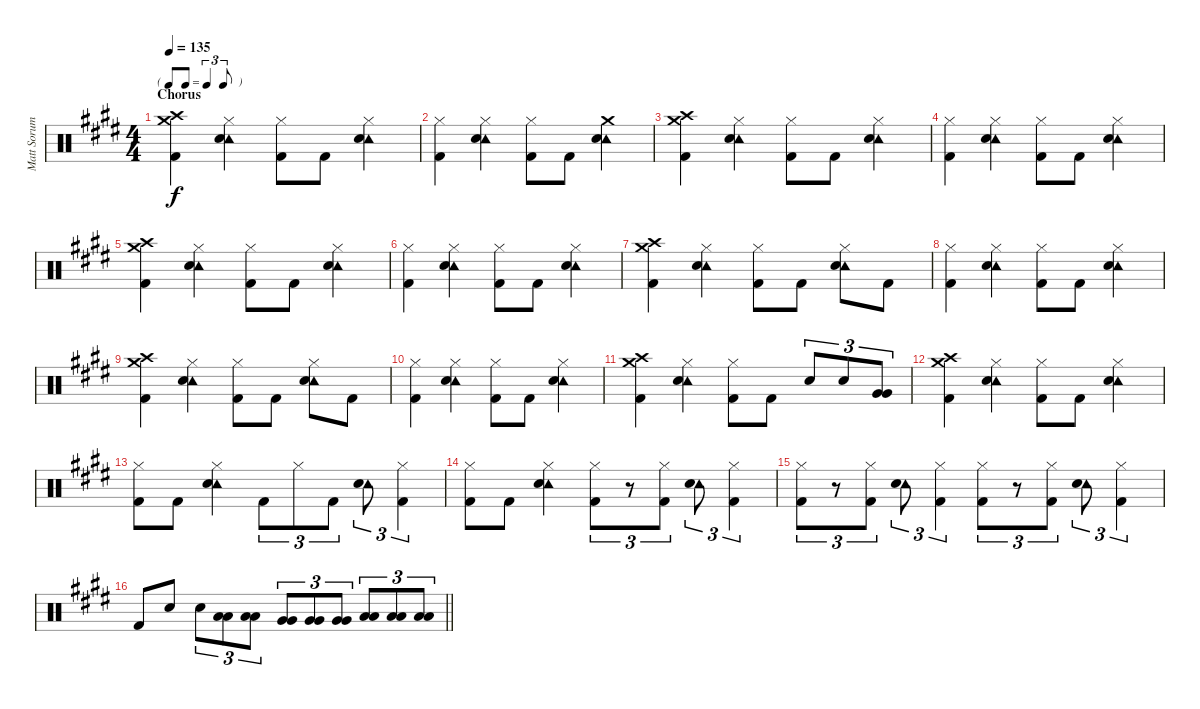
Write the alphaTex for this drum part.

\track ("Matt Sorum - Drums" "Matt Sorum") {instrument percussion}
\staff {score}
\articulation defaults
\ts (4 4)
\tf triplet8th
\section ("" "Chorus")
\tempo 135
\clef neutral
\ks e
("Crash medium (hit)" "Crash high (hit)" "Kick (hit) 2").4{dy f} ("Hi-Hat (closed)" "Tambourine (hit)" "Snare (hit) 2").4 ("Hi-Hat (closed)" "Kick (hit) 2").8 "Kick (hit) 2".8 ("Hi-Hat (closed)" "Tambourine (hit)" "Snare (hit) 2").4 |
("Hi-Hat (closed)" "Kick (hit) 2").4 ("Hi-Hat (closed)" "Tambourine (hit)" "Snare (hit) 2").4 ("Hi-Hat (closed)" "Kick (hit) 2").8 "Kick (hit) 2".8 ("Crash medium (hit)" "Tambourine (hit)" "Snare (hit) 2").4 |
("Crash medium (hit)" "Crash high (hit)" "Kick (hit) 2").4 ("Hi-Hat (closed)" "Tambourine (hit)" "Snare (hit) 2").4 ("Hi-Hat (closed)" "Kick (hit) 2").8 "Kick (hit) 2".8 ("Hi-Hat (closed)" "Tambourine (hit)" "Snare (hit) 2").4 |
("Hi-Hat (closed)" "Kick (hit) 2").4 ("Hi-Hat (closed)" "Tambourine (hit)" "Snare (hit) 2").4 ("Hi-Hat (closed)" "Kick (hit) 2").8 "Kick (hit) 2".8 ("Hi-Hat (closed)" "Tambourine (hit)" "Snare (hit) 2").4 |
("Crash medium (hit)" "Crash high (hit)" "Kick (hit) 2").4 ("Hi-Hat (closed)" "Tambourine (hit)" "Snare (hit) 2").4 ("Hi-Hat (closed)" "Kick (hit) 2").8 "Kick (hit) 2".8 ("Hi-Hat (closed)" "Tambourine (hit)" "Snare (hit) 2").4 |
("Hi-Hat (closed)" "Kick (hit) 2").4 ("Hi-Hat (closed)" "Tambourine (hit)" "Snare (hit) 2").4 ("Hi-Hat (closed)" "Kick (hit) 2").8 "Kick (hit) 2".8 ("Hi-Hat (closed)" "Tambourine (hit)" "Snare (hit) 2").4 |
("Crash medium (hit)" "Crash high (hit)" "Kick (hit) 2").4 ("Hi-Hat (closed)" "Tambourine (hit)" "Snare (hit) 2").4 ("Hi-Hat (closed)" "Kick (hit) 2").8 "Kick (hit) 2".8 ("Hi-Hat (closed)" "Tambourine (hit)" "Snare (hit) 2").8 "Kick (hit) 2".8 |
("Hi-Hat (closed)" "Kick (hit) 2").4 ("Hi-Hat (closed)" "Tambourine (hit)" "Snare (hit) 2").4 ("Hi-Hat (closed)" "Kick (hit) 2").8 "Kick (hit) 2".8 ("Hi-Hat (closed)" "Tambourine (hit)" "Snare (hit) 2").4 |
("Crash medium (hit)" "Crash high (hit)" "Kick (hit) 2").4 ("Hi-Hat (closed)" "Tambourine (hit)" "Snare (hit) 2").4 ("Hi-Hat (closed)" "Kick (hit) 2").8 "Kick (hit) 2".8 ("Hi-Hat (closed)" "Tambourine (hit)" "Snare (hit) 2").8 "Kick (hit) 2".8 |
("Hi-Hat (closed)" "Kick (hit) 2").4 ("Hi-Hat (closed)" "Tambourine (hit)" "Snare (hit) 2").4 ("Hi-Hat (closed)" "Kick (hit) 2").8 "Kick (hit) 2".8 ("Hi-Hat (closed)" "Tambourine (hit)" "Snare (hit) 2").4 |
("Crash medium (hit)" "Crash high (hit)" "Kick (hit) 2").4 ("Hi-Hat (closed)" "Tambourine (hit)" "Snare (hit) 2").4 ("Hi-Hat (closed)" "Kick (hit) 2").8 "Kick (hit) 2".8 "Snare (hit) 2".8{tu (3 2)} "Snare (hit) 2".8{tu (3 2)} ("Very Low Tom (hit)" "Very Low Tom (hit)").8{tu (3 2)} |
("Crash medium (hit)" "Crash high (hit)" "Kick (hit) 2").4 ("Hi-Hat (closed)" "Tambourine (hit)" "Snare (hit) 2").4 ("Hi-Hat (closed)" "Kick (hit) 2").8 "Kick (hit) 2".8 ("Hi-Hat (closed)" "Tambourine (hit)" "Snare (hit) 2").4 |
("Hi-Hat (closed)" "Kick (hit) 2").8 "Kick (hit) 2".8 ("Hi-Hat (closed)" "Tambourine (hit)" "Snare (hit) 2").4 "Kick (hit) 2".8{tu (3 2)} "Hi-Hat (closed)".8{tu (3 2)} "Kick (hit) 2".8{tu (3 2)} ("Tambourine (hit)" "Snare (hit) 2").8{tu (3 2)} ("Hi-Hat (closed)" "Kick (hit) 2").4{tu (3 2)} |
("Hi-Hat (closed)" "Kick (hit) 2").8 "Kick (hit) 2".8 ("Hi-Hat (closed)" "Tambourine (hit)" "Snare (hit) 2").4 ("Hi-Hat (closed)" "Kick (hit) 2").8{tu (3 2)} r.8{tu (3 2)} ("Hi-Hat (closed)" "Kick (hit) 2").8{tu (3 2)} ("Tambourine (hit)" "Snare (hit) 2").8{tu (3 2)} ("Hi-Hat (closed)" "Kick (hit) 2").4{tu (3 2)} |
("Hi-Hat (closed)" "Kick (hit) 2").8{tu (3 2)} r.8{tu (3 2)} ("Hi-Hat (closed)" "Kick (hit) 2").8{tu (3 2)} ("Tambourine (hit)" "Snare (hit) 2").8{tu (3 2)} ("Hi-Hat (closed)" "Kick (hit) 2").4{tu (3 2)} ("Hi-Hat (closed)" "Kick (hit) 2").8{tu (3 2)} r.8{tu (3 2)} ("Hi-Hat (closed)" "Kick (hit) 2").8{tu (3 2)} ("Tambourine (hit)" "Snare (hit) 2").8{tu (3 2)} ("Hi-Hat (closed)" "Kick (hit) 2").4{tu (3 2)} |
\barLineRight lightlight "Kick (hit) 2".8 "Snare (hit) 2".8 "Snare (hit) 2".8{tu (3 2)}
("Low Tom (hit)" "Low Tom (hit)").8{tu (3 2)} ("Low Tom (hit)" "Low Tom (hit)").8{tu (3 2)} ("Very Low Tom (hit)" "Very Low Tom (hit)").8{tu (3 2)} ("Very Low Tom (hit)" "Very Low Tom (hit)").8{tu (3 2)} ("Very Low Tom (hit)" "Very Low Tom (hit)").8{tu (3 2)} ("Low Floor Tom (hit)" "Low Floor Tom (hit)").8{tu (3 2)} ("Low Floor Tom (hit)" "Low Floor Tom (hit)").8{tu (3 2)} ("Low Floor Tom (hit)" "Low Floor Tom (hit)").8{tu (3 2)}
